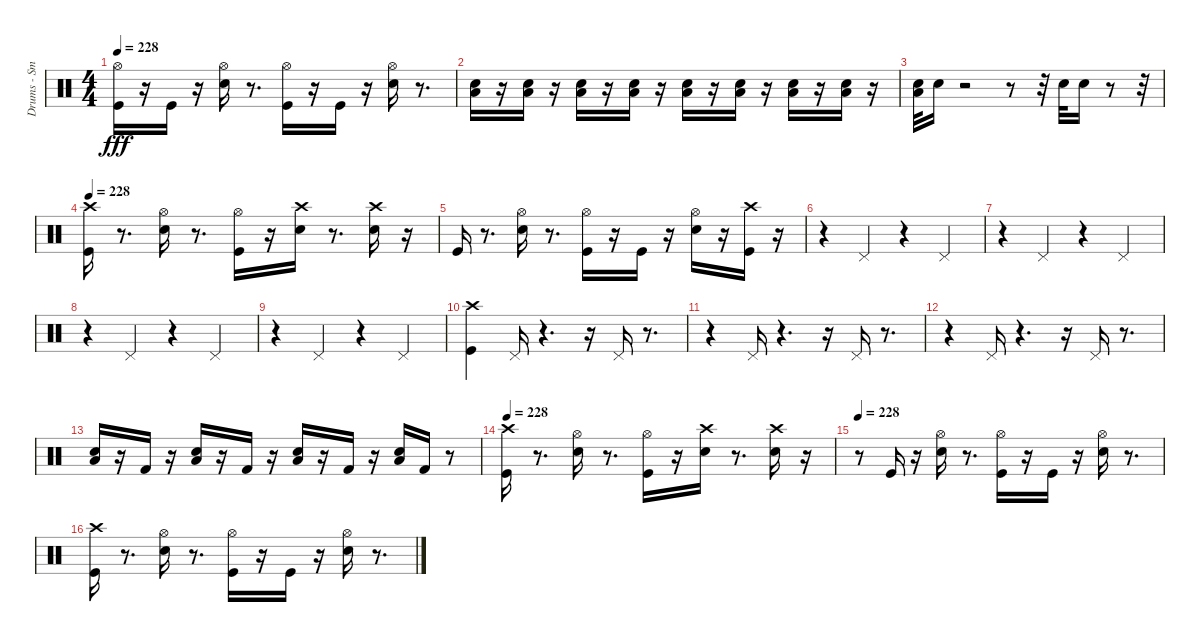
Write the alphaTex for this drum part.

\track ("Drums - Smelly" "Drums - Sm") {instrument percussion}
\staff {score}
\articulation defaults
\ts (4 4)
\tempo 228
\clef neutral
\ks c
("Hi-Hat (open)" "Kick (hit)").16{dy fff} r.16 "Kick (hit)".16 r.16 ("Hi-Hat (open)" "Electric Snare (hit)").16 r.8{d} ("Kick (hit)" "Hi-Hat (open)").16 r.16 "Kick (hit)".16 r.16 ("Electric Snare (hit)" "Hi-Hat (open)").16 r.8{d} |
("Low Floor Tom (hit)" "Electric Snare (hit)").16 r.16 ("Low Floor Tom (hit)" "Electric Snare (hit)").16 r.16 ("Electric Snare (hit)" "Low Floor Tom (hit)").16 r.16 ("Electric Snare (hit)" "Low Floor Tom (hit)").16 r.16 ("Electric Snare (hit)" "Low Floor Tom (hit)").16 r.16 ("Electric Snare (hit)" "Low Floor Tom (hit)").16 r.16 ("Low Floor Tom (hit)" "Electric Snare (hit)").16 r.16 ("Low Floor Tom (hit)" "Electric Snare (hit)").16 r.16 |
("Electric Snare (hit)" "Low Floor Tom (hit)").32 "Electric Snare (hit)".16 r.2 r.8 r.32 "Electric Snare (hit)".32 "Electric Snare (hit)".16 r.8 r.32 |
\tempo 228
("Kick (hit)" "Crash high (hit)").16 r.8{d} ("Electric Snare (hit)" "Hi-Hat (open)").16 r.8{d} ("Hi-Hat (open)" "Kick (hit)").16 r.16 ("Crash high (hit)" "Electric Snare (hit)").16 r.8{d} ("Crash high (hit)" "Electric Snare (hit)").16 r.16 |
"Kick (hit)".16 r.8{d} ("Electric Snare (hit)" "Hi-Hat (open)").16 r.8{d} ("Hi-Hat (open)" "Kick (hit)").16 r.16 "Kick (hit)".16 r.16 ("Hi-Hat (open)" "Electric Snare (hit)").16 r.16 ("Crash high (hit)" "Kick (hit)").16 r.16 |
r.4 "Pedal Hi-Hat (hit)".4 r.4 "Pedal Hi-Hat (hit)".4 |
r.4 "Pedal Hi-Hat (hit)".4 r.4 "Pedal Hi-Hat (hit)".4 |
r.4 "Pedal Hi-Hat (hit)".4 r.4 "Pedal Hi-Hat (hit)".4 |
r.4 "Pedal Hi-Hat (hit)".4 r.4 "Pedal Hi-Hat (hit)".4 |
("Kick (hit)" "Crash high (hit)").4 "Pedal Hi-Hat (hit)".16 r.4{d} r.16 "Pedal Hi-Hat (hit)".16 r.8{d} |
r.4 "Pedal Hi-Hat (hit)".16 r.4{d} r.16 "Pedal Hi-Hat (hit)".16 r.8{d} |
r.4 "Pedal Hi-Hat (hit)".16 r.4{d} r.16 "Pedal Hi-Hat (hit)".16 r.8{d} |
("Low Floor Tom (hit)" "Electric Snare (hit)").16 r.16 "Kick (hit) 2".16 r.16 ("Low Floor Tom (hit)" "Electric Snare (hit)").16 r.16 "Kick (hit) 2".16 r.16 ("Low Floor Tom (hit)" "Electric Snare (hit)").16 r.16 "Kick (hit) 2".16 r.16 ("Electric Snare (hit)" "Low Floor Tom (hit)").16 "Kick (hit) 2".16 r.8 |
\tempo 228
("Kick (hit)" "Crash high (hit)").16 r.8{d} ("Electric Snare (hit)" "Hi-Hat (open)").16 r.8{d} ("Kick (hit)" "Hi-Hat (open)").16 r.16 ("Crash high (hit)" "Electric Snare (hit)").16 r.8{d} ("Electric Snare (hit)" "Crash high (hit)").16 r.16 |
\tempo 228
r.8 "Kick (hit)".16 r.16 ("Hi-Hat (open)" "Electric Snare (hit)").16 r.8{d} ("Kick (hit)" "Hi-Hat (open)").16 r.16 "Kick (hit)".16 r.16 ("Electric Snare (hit)" "Hi-Hat (open)").16 r.8{d} |
("Crash high (hit)" "Kick (hit)").16 r.8{d} ("Electric Snare (hit)" "Hi-Hat (open)").16 r.8{d} ("Kick (hit)" "Hi-Hat (open)").16 r.16 "Kick (hit)".16 r.16 ("Electric Snare (hit)" "Hi-Hat (open)").16 r.8{d}
